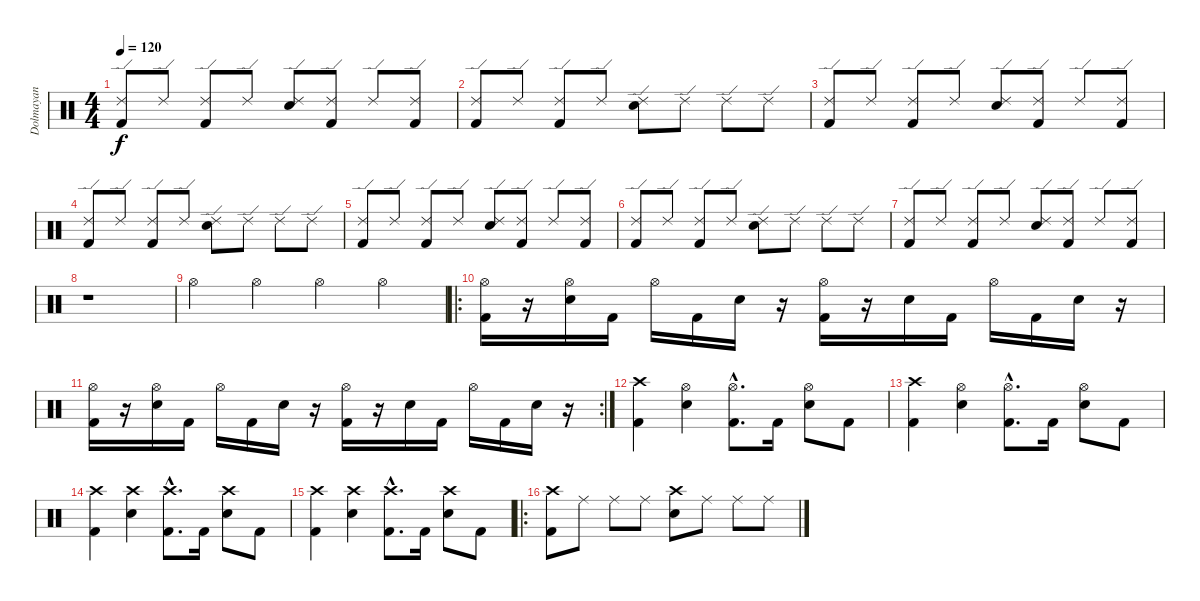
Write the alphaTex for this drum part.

\track ("Dolmayan" "Dolmayan") {instrument percussion}
\staff {score}
\articulation defaults
\ts (4 4)
\tempo 120
\clef neutral
\ks c
("Ride (edge) 2" "Kick (hit) 2").8{dy f} "Ride (edge) 2".8 ("Ride (edge) 2" "Kick (hit) 2").8 "Ride (edge) 2".8 ("Ride (edge) 2" "Snare (hit) 2").8 ("Ride (edge) 2" "Kick (hit) 2").8 "Ride (edge) 2".8 ("Ride (edge) 2" "Kick (hit) 2").8 |
("Ride (edge) 2" "Kick (hit) 2").8 "Ride (edge) 2".8 ("Ride (edge) 2" "Kick (hit) 2").8 "Ride (edge) 2".8 ("Ride (edge) 2" "Snare (hit) 2").8 "Ride (edge) 2".8 "Ride (edge) 2".8 "Ride (edge) 2".8 |
("Ride (edge) 2" "Kick (hit) 2").8 "Ride (edge) 2".8 ("Ride (edge) 2" "Kick (hit) 2").8 "Ride (edge) 2".8 ("Ride (edge) 2" "Snare (hit) 2").8 ("Ride (edge) 2" "Kick (hit) 2").8 "Ride (edge) 2".8 ("Ride (edge) 2" "Kick (hit) 2").8 |
("Ride (edge) 2" "Kick (hit) 2").8 "Ride (edge) 2".8 ("Ride (edge) 2" "Kick (hit) 2").8 "Ride (edge) 2".8 ("Ride (edge) 2" "Snare (hit) 2").8 "Ride (edge) 2".8 "Ride (edge) 2".8 "Ride (edge) 2".8 |
("Ride (edge) 2" "Kick (hit) 2").8 "Ride (edge) 2".8 ("Ride (edge) 2" "Kick (hit) 2").8 "Ride (edge) 2".8 ("Ride (edge) 2" "Snare (hit) 2").8 ("Ride (edge) 2" "Kick (hit) 2").8 "Ride (edge) 2".8 ("Ride (edge) 2" "Kick (hit) 2").8 |
("Ride (edge) 2" "Kick (hit) 2").8 "Ride (edge) 2".8 ("Ride (edge) 2" "Kick (hit) 2").8 "Ride (edge) 2".8 ("Ride (edge) 2" "Snare (hit) 2").8 "Ride (edge) 2".8 "Ride (edge) 2".8 "Ride (edge) 2".8 |
("Ride (edge) 2" "Kick (hit) 2").8 "Ride (edge) 2".8 ("Ride (edge) 2" "Kick (hit) 2").8 "Ride (edge) 2".8 ("Ride (edge) 2" "Snare (hit) 2").8 ("Ride (edge) 2" "Kick (hit) 2").8 "Ride (edge) 2".8 ("Ride (edge) 2" "Kick (hit) 2").8 |
r.1 |
"Hi-Hat (open)".4 "Hi-Hat (open)".4 "Hi-Hat (open)".4 "Hi-Hat (open)".4 |
\ro
("Hi-Hat (open)" "Kick (hit) 2").16 r.16 ("Hi-Hat (open)" "Snare (hit) 2").16 "Kick (hit) 2".16 "Hi-Hat (open)".16 "Kick (hit) 2".16 "Snare (hit) 2".16 r.16 ("Hi-Hat (open)" "Kick (hit) 2").16 r.16 "Snare (hit) 2".16 "Kick (hit) 2".16 "Hi-Hat (open)".16 "Kick (hit) 2".16 "Snare (hit) 2".16 r.16 |
\rc 2
("Hi-Hat (open)" "Kick (hit) 2").16 r.16 ("Hi-Hat (open)" "Snare (hit) 2").16 "Kick (hit) 2".16 "Hi-Hat (open)".16 "Kick (hit) 2".16 "Snare (hit) 2".16 r.16 ("Hi-Hat (open)" "Kick (hit) 2").16 r.16 "Snare (hit) 2".16 "Kick (hit) 2".16 "Hi-Hat (open)".16 "Kick (hit) 2".16 "Snare (hit) 2".16 r.16 |
("Crash high (hit)" "Kick (hit) 2").4 ("Hi-Hat (open)" "Snare (hit) 2").4 ("Hi-Hat (open)"{hac} "Kick (hit) 2"{hac}).8{d} "Kick (hit) 2".16 ("Hi-Hat (open)" "Snare (hit) 2").8 "Kick (hit) 2".8 |
("Crash high (hit)" "Kick (hit) 2").4 ("Hi-Hat (open)" "Snare (hit) 2").4 ("Hi-Hat (open)"{hac} "Kick (hit) 2"{hac}).8{d} "Kick (hit) 2".16 ("Hi-Hat (open)" "Snare (hit) 2").8 "Kick (hit) 2".8 |
("Crash high (hit)" "Kick (hit) 2").4 ("Crash high (hit)" "Snare (hit) 2").4 ("Crash high (hit)"{hac} "Kick (hit) 2"{hac}).8{d} "Kick (hit) 2".16 ("Crash high (hit)" "Snare (hit) 2").8 "Kick (hit) 2".8 |
("Crash high (hit)" "Kick (hit) 2").4 ("Crash high (hit)" "Snare (hit) 2").4 ("Crash high (hit)"{hac} "Kick (hit) 2"{hac}).8{d} "Kick (hit) 2".16 ("Crash high (hit)" "Snare (hit) 2").8 "Kick (hit) 2".8 |
\ro
("Crash high (hit)" "Kick (hit) 2").8 "Ride (middle)".8 "Ride (middle)".8 "Ride (middle)".8 ("Crash high (hit)" "Snare (hit) 2").8 "Ride (middle)".8 "Ride (middle)".8 "Ride (middle)".8
